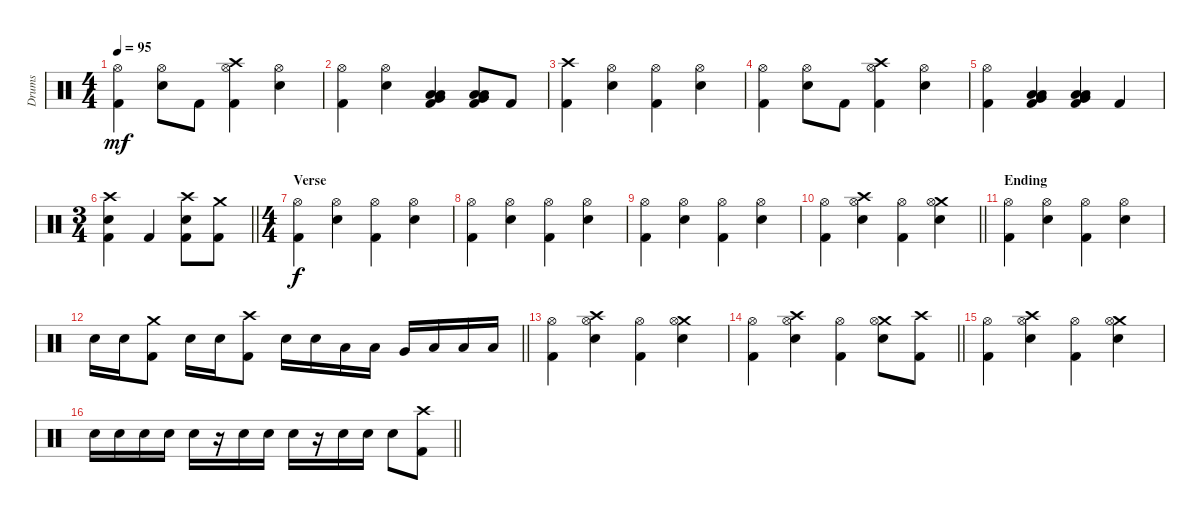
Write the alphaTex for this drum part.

\track ("Drums" "Drums") {instrument percussion}
\staff {score}
\articulation defaults
\ts (4 4)
\tempo 95
\clef neutral
\ks c
("Hi-Hat (open)" "Kick (hit) 2").4{dy mf} ("Hi-Hat (open)" "Electric Snare (hit)").8 "Kick (hit) 2".8 ("Crash high (hit)" "Hi-Hat (open)" "Kick (hit) 2").4 ("Hi-Hat (open)" "Electric Snare (hit)").4 |
("Hi-Hat (open)" "Kick (hit) 2").4 ("Hi-Hat (open)" "Electric Snare (hit)").4 ("Low Floor Tom (hit)" "Very Low Tom (hit)" "Low Tom (hit)" "Kick (hit) 2").4 ("Low Floor Tom (hit)" "Very Low Tom (hit)" "Low Tom (hit)" "Kick (hit) 2").8 "Kick (hit) 2".8 |
("Crash high (hit)" "Kick (hit) 2").4 ("Hi-Hat (open)" "Electric Snare (hit)").4 ("Hi-Hat (open)" "Kick (hit) 2").4 ("Hi-Hat (open)" "Electric Snare (hit)").4 |
("Hi-Hat (open)" "Kick (hit) 2").4 ("Hi-Hat (open)" "Electric Snare (hit)").8 "Kick (hit) 2".8 ("Crash high (hit)" "Hi-Hat (open)" "Kick (hit) 2").4 ("Hi-Hat (open)" "Electric Snare (hit)").4 |
("Hi-Hat (open)" "Kick (hit) 2").4 ("Low Floor Tom (hit)" "Very Low Tom (hit)" "Low Tom (hit)" "Kick (hit) 2").4 ("Low Floor Tom (hit)" "Very Low Tom (hit)" "Low Tom (hit)" "Kick (hit) 2").4 "Kick (hit) 2".4 |
\ts (3 4)
\barLineRight lightlight
("Crash high (hit)" "Electric Snare (hit)" "Kick (hit) 2").4 "Kick (hit) 2".4 ("Crash high (hit)" "Electric Snare (hit)" "Kick (hit) 2").8 ("Crash medium (hit)" "Kick (hit) 2").8 |
\ts (4 4)
\section ("" "Verse")
("Hi-Hat (open)" "Kick (hit) 2").4{dy f} ("Hi-Hat (open)" "Electric Snare (hit)").4 ("Hi-Hat (open)" "Kick (hit) 2").4 ("Hi-Hat (open)" "Electric Snare (hit)").4 |
("Hi-Hat (open)" "Kick (hit) 2").4 ("Hi-Hat (open)" "Electric Snare (hit)").4 ("Hi-Hat (open)" "Kick (hit) 2").4 ("Hi-Hat (open)" "Electric Snare (hit)").4 |
("Hi-Hat (open)" "Kick (hit) 2").4 ("Hi-Hat (open)" "Electric Snare (hit)").4 ("Hi-Hat (open)" "Kick (hit) 2").4 ("Hi-Hat (open)" "Electric Snare (hit)").4 |
\barLineRight lightlight
("Hi-Hat (open)" "Kick (hit) 2").4 ("Crash high (hit)" "Hi-Hat (open)" "Electric Snare (hit)").4 ("Hi-Hat (open)" "Kick (hit) 2").4 ("Crash medium (hit)" "Hi-Hat (open)" "Electric Snare (hit)").4 |
\section ("" "Ending")
("Hi-Hat (open)" "Kick (hit) 2").4 ("Hi-Hat (open)" "Electric Snare (hit)").4 ("Hi-Hat (open)" "Kick (hit) 2").4 ("Hi-Hat (open)" "Electric Snare (hit)").4 |
\barLineRight lightlight "Electric Snare (hit)".16 "Electric Snare (hit)".16
("Crash medium (hit)" "Kick (hit) 2").8 "Electric Snare (hit)".16 "Electric Snare (hit)".16 ("Crash high (hit)" "Kick (hit) 2").8 "Electric Snare (hit)".16 "Electric Snare (hit)".16 "Low Tom (hit)".16 "Low Tom (hit)".16 "Very Low Tom (hit)".16 "Low Floor Tom (hit)".16 "Low Floor Tom (hit)".16 "Low Floor Tom (hit)".16 |
("Hi-Hat (open)" "Kick (hit) 2").4 ("Crash high (hit)" "Hi-Hat (open)" "Electric Snare (hit)").4 ("Hi-Hat (open)" "Kick (hit) 2").4 ("Crash medium (hit)" "Hi-Hat (open)" "Electric Snare (hit)").4 |
\barLineRight lightlight
("Hi-Hat (open)" "Kick (hit) 2").4 ("Crash high (hit)" "Hi-Hat (open)" "Electric Snare (hit)").4 ("Hi-Hat (open)" "Kick (hit) 2").4 ("Crash medium (hit)" "Hi-Hat (open)" "Electric Snare (hit)").8 ("Crash high (hit)" "Kick (hit) 2").8 |
("Hi-Hat (open)" "Kick (hit) 2").4 ("Crash high (hit)" "Hi-Hat (open)" "Electric Snare (hit)").4 ("Hi-Hat (open)" "Kick (hit) 2").4 ("Crash medium (hit)" "Hi-Hat (open)" "Electric Snare (hit)").4 |
\barLineRight lightlight "Electric Snare (hit)".16 "Electric Snare (hit)".16 "Electric Snare (hit)".16 "Electric Snare (hit)".16 "Electric Snare (hit)".16
r.16 "Electric Snare (hit)".16 "Electric Snare (hit)".16 "Electric Snare (hit)".16 r.16 "Electric Snare (hit)".16 "Electric Snare (hit)".16 "Electric Snare (hit)".8 ("Crash high (hit)" "Kick (hit) 2").8
